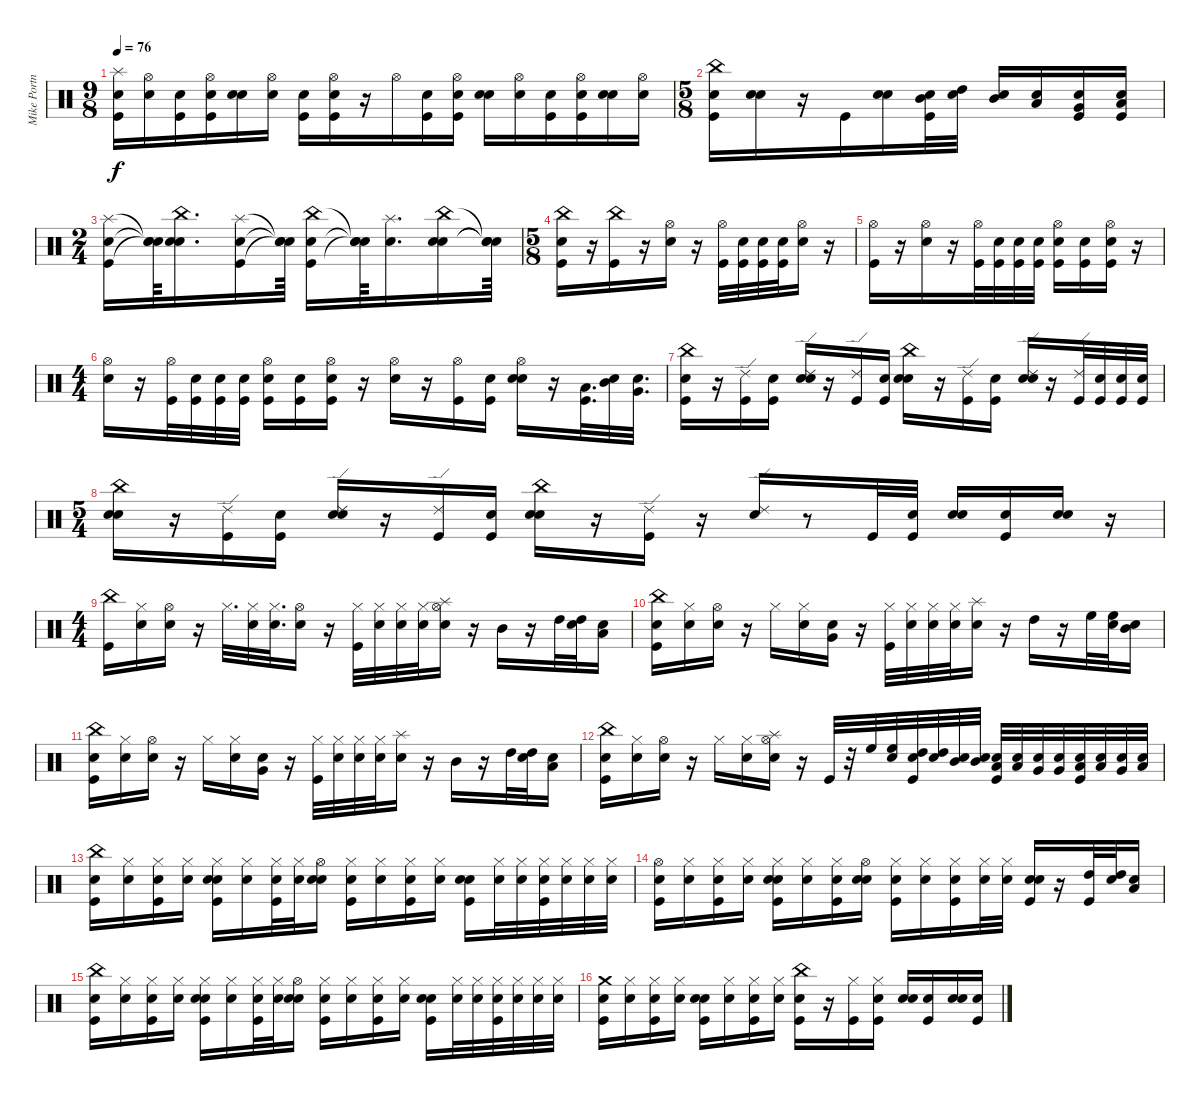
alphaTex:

\track ("Mike Portnoy" "Mike Portn") {instrument percussion}
\staff {score}
\articulation defaults
\ts (9 8)
\tempo 76
\clef neutral
\ks c
("Snare (hit)" "Kick (hit)" "Splash (hit)").16{dy f} ("Snare (hit)" "Hi-Hat (open)").16 ("Snare (hit)" "Kick (hit)").16 ("Snare (hit)" "Kick (hit)" "Hi-Hat (open)").16 ("Snare (hit)" "Snare (hit) 2").16 ("Snare (hit)" "Hi-Hat (open)").16 ("Snare (hit)" "Kick (hit)").16 ("Snare (hit)" "Kick (hit)" "Hi-Hat (open)").16 r.16 "Hi-Hat (open)".16 ("Snare (hit)" "Kick (hit)").16 ("Snare (hit)" "Kick (hit)" "Hi-Hat (open)").16 ("Snare (hit)" "Snare (hit) 2").16 ("Snare (hit)" "Hi-Hat (open)").16 ("Snare (hit)" "Kick (hit)").16 ("Snare (hit)" "Kick (hit)" "Hi-Hat (open)").16 ("Snare (hit)" "Snare (hit) 2").16 ("Snare (hit)" "Hi-Hat (open)").16 |
\ts (5 8)
("Snare (hit)" "Kick (hit)" "China (hit)").16 ("Snare (hit)" "Snare (hit) 2").16 r.16 "Kick (hit)".16 ("Snare (hit)" "Snare (hit) 2").16 ("Snare (hit)" "Kick (hit)" "Mid Tom (hit)").32 ("Snare (hit)" "High Tom (hit)").32 ("Snare (hit)" "Mid Tom (hit)").16 ("Snare (hit)" "Low Tom (hit)").16 ("Snare (hit)" "Kick (hit)" "Very Low Tom (hit)").16 ("Snare (hit)" "Kick (hit)" "Low Floor Tom (hit)").16 |
\ts (2 4)
("Snare (hit)" "Kick (hit)" "Splash (hit)").16 ("Snare (hit)"{t} "Snare (hit)"{t} "Snare (hit)"{t}).64 ("Snare (hit)" "Snare (hit) 2" "China (hit)").16{d} ("Snare (hit)" "Kick (hit)" "Splash (hit)").16 ("Snare (hit)"{t} "Snare (hit)"{t} "Snare (hit)"{t}).64 ("Snare (hit)" "Kick (hit)" "China (hit)").16 ("Snare (hit)"{t} "Snare (hit)"{t} "Snare (hit)"{t}).64 ("Snare (hit)" "Splash (hit)").16{d} ("Snare (hit)" "Snare (hit) 2" "China (hit)").16 ("Snare (hit)"{t} "Snare (hit)"{t} "Snare (hit)"{t}).64 |
\ts (5 8)
("Snare (hit)" "Kick (hit)" "China (hit)").16 r.16 ("Kick (hit)" "China (hit)").16 r.16 ("Snare (hit) 2" "Hi-Hat (open)").16 r.16 ("Kick (hit)" "Hi-Hat (open)").32 ("Snare (hit)" "Kick (hit)").32 ("Snare (hit)" "Kick (hit)").32 ("Snare (hit)" "Kick (hit)").32 ("Snare (hit)" "Hi-Hat (open)").16 r.16 |
("Kick (hit)" "Hi-Hat (open)").16 r.16 ("Snare (hit) 2" "Hi-Hat (open)").16 r.16 ("Kick (hit)" "Hi-Hat (open)").32 ("Snare (hit)" "Kick (hit)").32 ("Snare (hit)" "Kick (hit)").32 ("Snare (hit)" "Kick (hit)").32 ("Snare (hit)" "Kick (hit)" "Hi-Hat (open)").16 ("Snare (hit)" "Kick (hit)").16 ("Snare (hit)" "Kick (hit)" "Hi-Hat (open)").16 r.16 |
\ts (4 4)
("Snare (hit) 2" "Hi-Hat (open)").16 r.16 ("Kick (hit)" "Hi-Hat (open)").32 ("Snare (hit)" "Kick (hit)").32 ("Snare (hit)" "Kick (hit)").32 ("Snare (hit)" "Kick (hit)").32 ("Snare (hit)" "Kick (hit)" "Hi-Hat (open)").16 ("Snare (hit)" "Kick (hit)").16 ("Snare (hit)" "Kick (hit)" "Hi-Hat (open)").16 r.16 ("Snare (hit) 2" "Hi-Hat (open)").16 r.16 ("Kick (hit)" "Hi-Hat (open)").16 ("Snare (hit)" "Kick (hit)").16 ("Snare (hit)" "Snare (hit) 2" "Hi-Hat (open)").16 r.16 ("Kick (hit)" "Low Tom (hit)").32{d} ("Snare (hit)" "Mid Tom (hit)").32 ("Snare (hit)" "Very Low Tom (hit)").32{d} |
("Snare (hit)" "Kick (hit)" "China (hit)").16 r.16 ("Kick (hit)" "Ride (edge) 2").16 ("Snare (hit)" "Kick (hit)").16 ("Snare (hit)" "Snare (hit) 2" "Ride (edge) 2").16 r.16 ("Kick (hit)" "Ride (edge) 2").16 ("Snare (hit)" "Kick (hit)").16 ("Snare (hit)" "Snare (hit) 2" "China (hit)").16 r.16 ("Kick (hit)" "Ride (edge) 2").16 ("Snare (hit)" "Kick (hit)").16 ("Snare (hit)" "Snare (hit) 2" "Ride (edge) 2").16 r.16 ("Kick (hit)" "Ride (edge) 2").32 ("Snare (hit)" "Kick (hit)").32 ("Snare (hit)" "Kick (hit)").32 ("Snare (hit)" "Kick (hit)").32 |
\ts (5 4)
("Snare (hit)" "Snare (hit) 2" "China (hit)").16 r.16 ("Kick (hit)" "Ride (edge) 2").16 ("Snare (hit)" "Kick (hit)").16 ("Snare (hit)" "Snare (hit) 2" "Ride (edge) 2").16 r.16 ("Kick (hit)" "Ride (edge) 2").16 ("Snare (hit)" "Kick (hit)").16 ("Snare (hit)" "Snare (hit) 2" "China (hit)").16 r.16 ("Kick (hit)" "Ride (edge) 2").16 r.16 ("Snare (hit) 2" "Ride (edge) 2").16 r.8 "Kick (hit)".32 ("Snare (hit)" "Kick (hit)").32 ("Snare (hit)" "Snare (hit) 2").16 ("Snare (hit)" "Kick (hit)").16 ("Snare (hit)" "Snare (hit) 2").16 r.16 |
\ts (4 4)
("Kick (hit)" "China (hit)").16 ("Snare (hit)" "Hi-Hat (closed)").16 ("Snare (hit)" "Hi-Hat (open)").16 r.16 "Hi-Hat (closed)".32{d} ("Snare (hit)" "Hi-Hat (closed)").32 ("Snare (hit)" "Hi-Hat (closed)").32{d} ("Snare (hit)" "Hi-Hat (open)").16 r.16 ("Kick (hit)" "Hi-Hat (closed)").32 ("Snare (hit)" "Hi-Hat (closed)").32 ("Snare (hit)" "Hi-Hat (closed)").32 ("Snare (hit)" "Hi-Hat (closed)").32 ("Snare (hit)" "Hi-Hat (open)" "Splash (hit)").16 r.16 "Mid Tom (hit)".16 r.16 "High Tom (hit)".32 ("Snare (hit)" "High Tom (hit)").32 ("Snare (hit)" "Low Tom (hit)").16 |
("Snare (hit)" "Kick (hit)" "China (hit)").16 ("Snare (hit)" "Hi-Hat (closed)").16 ("Snare (hit)" "Hi-Hat (open)").16 r.16 "Hi-Hat (closed)".16 ("Snare (hit)" "Hi-Hat (closed)").16 ("Snare (hit)" "Very Low Tom (hit)").16 r.16 ("Kick (hit)" "Hi-Hat (closed)").32 ("Snare (hit)" "Hi-Hat (closed)").32 ("Snare (hit)" "Hi-Hat (closed)").32 ("Snare (hit)" "Hi-Hat (closed)").32 ("Snare (hit)" "Splash (hit)").16 r.16 "High Tom (hit)".16 r.16 "High Floor Tom (hit)".32 ("Snare (hit)" "High Floor Tom (hit)").32 ("Snare (hit)" "Mid Tom (hit)").16 |
("Snare (hit)" "Kick (hit)" "China (hit)").16 ("Snare (hit)" "Hi-Hat (closed)").16 ("Snare (hit)" "Hi-Hat (open)").16 r.16 "Hi-Hat (closed)".16 ("Snare (hit)" "Hi-Hat (closed)").16 ("Snare (hit)" "Very Low Tom (hit)").16 r.16 ("Kick (hit)" "Hi-Hat (closed)").32 ("Snare (hit)" "Hi-Hat (closed)").32 ("Snare (hit)" "Hi-Hat (closed)").32 ("Snare (hit)" "Hi-Hat (closed)").32 ("Snare (hit)" "Splash (hit)").16 r.16 "Mid Tom (hit)".16 r.16 "High Tom (hit)".32 ("Snare (hit)" "High Tom (hit)").32 ("Snare (hit)" "Low Tom (hit)").16 |
("Snare (hit)" "Kick (hit)" "China (hit)").16 ("Snare (hit)" "Hi-Hat (closed)").16 ("Snare (hit)" "Hi-Hat (open)").16 r.16 "Hi-Hat (closed)".16 ("Snare (hit)" "Hi-Hat (closed)").16 ("Snare (hit)" "Hi-Hat (open)" "Splash (hit)").16 r.16 "Kick (hit)".32 r.32 "High Floor Tom (hit)".32 ("Snare (hit)" "High Floor Tom (hit)").32 ("Snare (hit)" "Kick (hit)" "High Tom (hit)").32 ("Snare (hit)" "High Tom (hit)").32 ("Snare (hit)" "Mid Tom (hit)").32 ("Snare (hit)" "Mid Tom (hit)").32 ("Snare (hit)" "Kick (hit)" "Low Tom (hit)").32 ("Snare (hit)" "Low Tom (hit)").32 ("Snare (hit)" "Very Low Tom (hit)").32 ("Snare (hit)" "Very Low Tom (hit)").32 ("Snare (hit)" "Kick (hit)" "Low Floor Tom (hit)").32 ("Snare (hit)" "Low Floor Tom (hit)").32 ("Snare (hit)" "Very Low Tom (hit)").32 ("Snare (hit)" "Low Floor Tom (hit)").32 |
("Snare (hit)" "Kick (hit)" "China (hit)").16 ("Snare (hit)" "Hi-Hat (closed)").16 ("Snare (hit)" "Kick (hit)" "Hi-Hat (closed)").16 ("Snare (hit)" "Hi-Hat (closed)").16 ("Snare (hit)" "Kick (hit)" "Snare (hit) 2" "Hi-Hat (closed)").16 ("Snare (hit)" "Hi-Hat (closed)").16 ("Snare (hit)" "Kick (hit)" "Hi-Hat (closed)").32 ("Snare (hit)" "Hi-Hat (closed)").32 ("Snare (hit)" "Snare (hit) 2" "Hi-Hat (open)").16 ("Snare (hit)" "Kick (hit)" "Hi-Hat (closed)").16 ("Snare (hit)" "Hi-Hat (closed)").16 ("Snare (hit)" "Kick (hit)" "Hi-Hat (closed)").16 ("Snare (hit)" "Hi-Hat (closed)").16 ("Snare (hit)" "Kick (hit)" "Snare (hit) 2").16 ("Snare (hit)" "Hi-Hat (closed)").32 ("Snare (hit)" "Hi-Hat (closed)").32 ("Snare (hit)" "Kick (hit)" "Hi-Hat (closed)").32 ("Snare (hit)" "Hi-Hat (closed)").32 ("Snare (hit)" "Hi-Hat (closed)").32 ("Snare (hit)" "Hi-Hat (closed)").32 |
("Snare (hit)" "Kick (hit)" "Hi-Hat (open)").16 ("Snare (hit)" "Hi-Hat (closed)").16 ("Snare (hit)" "Kick (hit)" "Hi-Hat (closed)").16 ("Snare (hit)" "Hi-Hat (closed)").16 ("Snare (hit)" "Kick (hit)" "Snare (hit) 2" "Hi-Hat (closed)").16 ("Snare (hit)" "Hi-Hat (closed)").16 ("Snare (hit)" "Kick (hit)" "Hi-Hat (closed)").16 ("Snare (hit)" "Snare (hit) 2" "Hi-Hat (open)").16 ("Snare (hit)" "Kick (hit)" "Hi-Hat (closed)").16 ("Snare (hit)" "Hi-Hat (closed)").16 ("Snare (hit)" "Kick (hit)" "Hi-Hat (closed)").16 ("Snare (hit)" "Hi-Hat (closed)").32 ("Snare (hit)" "Hi-Hat (closed)").32 ("Snare (hit)" "Kick (hit)" "Snare (hit) 2").16 r.16 ("Kick (hit)" "High Tom (hit)").32 ("Snare (hit)" "High Tom (hit)").32 ("Snare (hit)" "Low Tom (hit)").16 |
("Snare (hit)" "Kick (hit)" "China (hit)").16 ("Snare (hit)" "Hi-Hat (closed)").16 ("Snare (hit)" "Kick (hit)" "Hi-Hat (closed)").16 ("Snare (hit)" "Hi-Hat (closed)").16 ("Snare (hit)" "Kick (hit)" "Snare (hit) 2" "Hi-Hat (closed)").16 ("Snare (hit)" "Hi-Hat (closed)").16 ("Snare (hit)" "Kick (hit)" "Hi-Hat (closed)").32 ("Snare (hit)" "Hi-Hat (closed)").32 ("Snare (hit)" "Snare (hit) 2" "Hi-Hat (open)").16 ("Snare (hit)" "Kick (hit)" "Hi-Hat (closed)").16 ("Snare (hit)" "Hi-Hat (closed)").16 ("Snare (hit)" "Kick (hit)" "Hi-Hat (closed)").16 ("Snare (hit)" "Hi-Hat (closed)").16 ("Snare (hit)" "Kick (hit)" "Snare (hit) 2").16 ("Snare (hit)" "Hi-Hat (closed)").32 ("Snare (hit)" "Hi-Hat (closed)").32 ("Snare (hit)" "Kick (hit)" "Hi-Hat (closed)").32 ("Snare (hit)" "Hi-Hat (closed)").32 ("Snare (hit)" "Hi-Hat (closed)").32 ("Snare (hit)" "Hi-Hat (closed)").32 |
("Snare (hit)" "Kick (hit)" "Crash medium (hit)").16 ("Snare (hit)" "Hi-Hat (closed)").16 ("Snare (hit)" "Kick (hit)" "Hi-Hat (closed)").16 ("Snare (hit)" "Hi-Hat (closed)").16 ("Snare (hit)" "Kick (hit)" "Snare (hit) 2").16 ("Snare (hit)" "Hi-Hat (closed)").16 ("Snare (hit)" "Kick (hit)" "Hi-Hat (closed)").16 ("Snare (hit)" "Hi-Hat (closed)").16 ("Snare (hit)" "Kick (hit)" "China (hit)").16 r.16 ("Kick (hit)" "Hi-Hat (closed)").16 ("Snare (hit)" "Kick (hit)" "Hi-Hat (closed)").16 ("Snare (hit)" "Snare (hit) 2").16 ("Snare (hit)" "Kick (hit)").16 ("Snare (hit)" "Snare (hit) 2").16 ("Snare (hit)" "Kick (hit)").16
